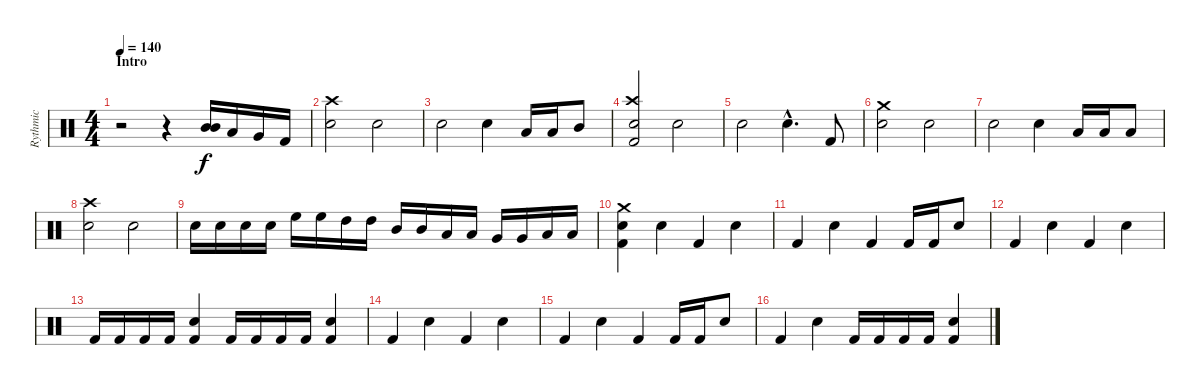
\track ("Rythmic" "Rythmic") {instrument percussion}
\staff {score}
\articulation defaults
\ts (4 4)
\section ("" "Intro")
\tempo 140
\clef neutral
\ks c
r.2{dy f} r.4 ("Mid Tom (hit)" "Mid Tom (hit)").16 "Low Tom (hit)".16 "Very Low Tom (hit)".16 "Kick (hit) 2".16 |
("Crash high (hit)" "Snare (hit) 2").2 "Snare (hit) 2".2 |
"Snare (hit) 2".2 "Snare (hit) 2".4 "Low Floor Tom (hit)".16 "Low Tom (hit)".16 "Mid Tom (hit)".8 |
("Crash high (hit)" "Snare (hit) 2" "Kick (hit) 2").2 "Snare (hit) 2".2 |
"Snare (hit) 2".2 "Snare (hit) 2"{hac}.4{d} "Kick (hit) 2".8 |
("Crash medium (hit)" "Snare (hit) 2").2 "Snare (hit) 2".2 |
"Snare (hit) 2".2 "Snare (hit) 2".4 "Low Floor Tom (hit)".16 "Low Floor Tom (hit)".16 "Low Floor Tom (hit)".8 |
("Crash high (hit)" "Snare (hit) 2").2 "Snare (hit) 2".2 |
"Snare (hit) 2".16 "Snare (hit) 2".16 "Snare (hit) 2".16 "Snare (hit) 2".16 "High Floor Tom (hit)".16 "High Floor Tom (hit)".16 "High Tom (hit)".16 "High Tom (hit)".16 "Mid Tom (hit)".16 "Mid Tom (hit)".16 "Low Tom (hit)".16 "Low Tom (hit)".16 "Very Low Tom (hit)".16 "Very Low Tom (hit)".16 "Low Floor Tom (hit)".16 "Low Floor Tom (hit)".16 |
("Crash medium (hit)" "Snare (hit) 2" "Kick (hit) 2").4 "Snare (hit) 2".4 "Kick (hit) 2".4 "Snare (hit) 2".4 |
"Kick (hit) 2".4 "Snare (hit) 2".4 "Kick (hit) 2".4 "Kick (hit) 2".16 "Kick (hit) 2".16 "Snare (hit) 2".8 |
"Kick (hit) 2".4 "Snare (hit) 2".4 "Kick (hit) 2".4 "Snare (hit) 2".4 |
"Kick (hit) 2".16 "Kick (hit) 2".16 "Kick (hit) 2".16 "Kick (hit) 2".16 ("Snare (hit) 2" "Kick (hit) 2").4 "Kick (hit) 2".16 "Kick (hit) 2".16 "Kick (hit) 2".16 "Kick (hit) 2".16 ("Snare (hit) 2" "Kick (hit) 2").4 |
"Kick (hit) 2".4 "Snare (hit) 2".4 "Kick (hit) 2".4 "Snare (hit) 2".4 |
"Kick (hit) 2".4 "Snare (hit) 2".4 "Kick (hit) 2".4 "Kick (hit) 2".16 "Kick (hit) 2".16 "Snare (hit) 2".8 |
"Kick (hit) 2".4 "Snare (hit) 2".4 "Kick (hit) 2".16 "Kick (hit) 2".16 "Kick (hit) 2".16 "Kick (hit) 2".16 ("Snare (hit) 2" "Kick (hit) 2").4
